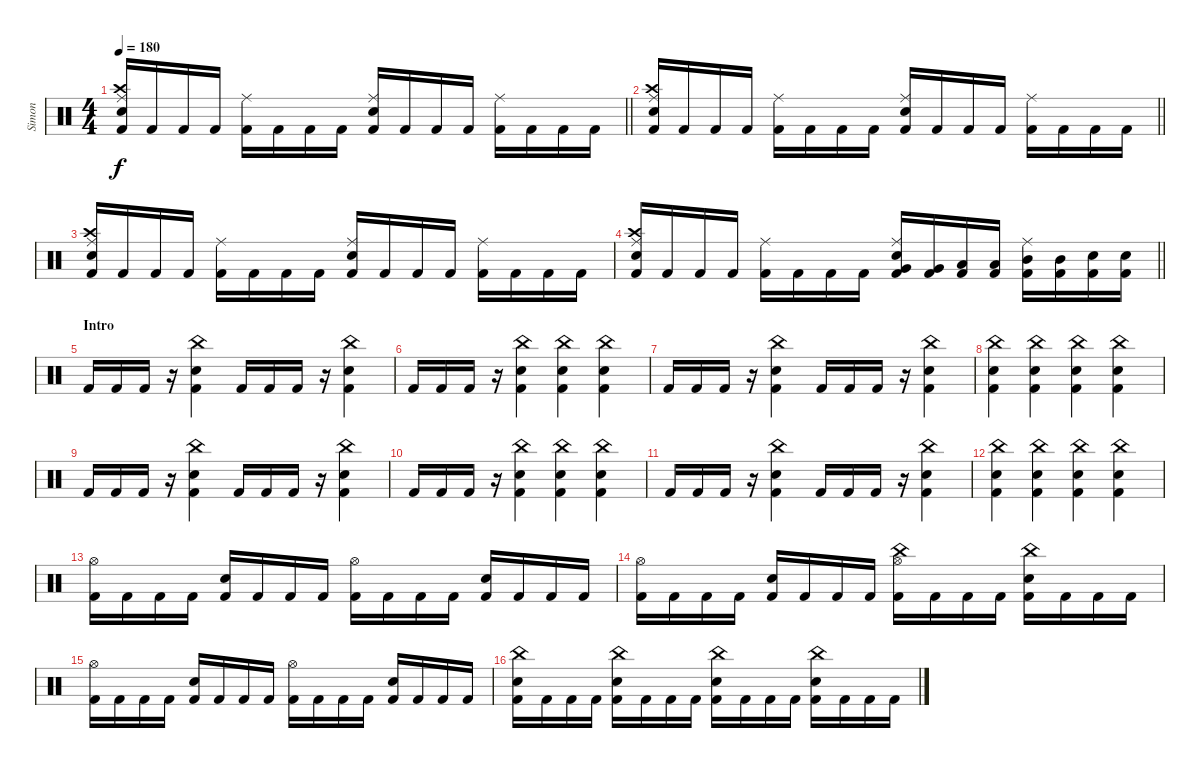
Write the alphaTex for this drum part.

\track ("Simon" "Simon") {instrument percussion}
\staff {score}
\articulation defaults
\ts (4 4)
\tempo 180
\clef neutral
\barLineRight lightlight
\ks c
("Electric Snare (hit)" "Crash high (hit)" "Ride (middle)" "Kick (hit) 2").16{dy f} "Kick (hit) 2".16 "Kick (hit) 2".16 "Kick (hit) 2".16 ("Ride (middle)" "Kick (hit) 2").16 "Kick (hit) 2".16 "Kick (hit) 2".16 "Kick (hit) 2".16 ("Electric Snare (hit)" "Ride (middle)" "Kick (hit) 2").16 "Kick (hit) 2".16 "Kick (hit) 2".16 "Kick (hit) 2".16 ("Ride (middle)" "Kick (hit) 2").16 "Kick (hit) 2".16 "Kick (hit) 2".16 "Kick (hit) 2".16 |
\barLineRight lightlight
("Electric Snare (hit)" "Crash high (hit)" "Ride (middle)" "Kick (hit) 2").16 "Kick (hit) 2".16 "Kick (hit) 2".16 "Kick (hit) 2".16 ("Ride (middle)" "Kick (hit) 2").16 "Kick (hit) 2".16 "Kick (hit) 2".16 "Kick (hit) 2".16 ("Electric Snare (hit)" "Ride (middle)" "Kick (hit) 2").16 "Kick (hit) 2".16 "Kick (hit) 2".16 "Kick (hit) 2".16 ("Ride (middle)" "Kick (hit) 2").16 "Kick (hit) 2".16 "Kick (hit) 2".16 "Kick (hit) 2".16 |
("Electric Snare (hit)" "Crash high (hit)" "Ride (middle)" "Kick (hit) 2").16 "Kick (hit) 2".16 "Kick (hit) 2".16 "Kick (hit) 2".16 ("Ride (middle)" "Kick (hit) 2").16 "Kick (hit) 2".16 "Kick (hit) 2".16 "Kick (hit) 2".16 ("Electric Snare (hit)" "Ride (middle)" "Kick (hit) 2").16 "Kick (hit) 2".16 "Kick (hit) 2".16 "Kick (hit) 2".16 ("Ride (middle)" "Kick (hit) 2").16 "Kick (hit) 2".16 "Kick (hit) 2".16 "Kick (hit) 2".16 |
\barLineRight lightlight
("Electric Snare (hit)" "Crash high (hit)" "Ride (middle)" "Kick (hit) 2").16 "Kick (hit) 2".16 "Kick (hit) 2".16 "Kick (hit) 2".16 ("Ride (middle)" "Kick (hit) 2").16 "Kick (hit) 2".16 "Kick (hit) 2".16 "Kick (hit) 2".16 ("Electric Snare (hit)" "Ride (middle)" "Very Low Tom (hit)" "Kick (hit) 2").16 ("Very Low Tom (hit)" "Kick (hit) 2").16 ("Low Tom (hit)" "Kick (hit) 2").16 ("Low Tom (hit)" "Kick (hit) 2").16 ("Ride (middle)" "Mid Tom (hit)" "Kick (hit) 2").16 ("Mid Tom (hit)" "Kick (hit) 2").16 ("Electric Snare (hit)" "Kick (hit) 2").16 ("Electric Snare (hit)" "Kick (hit) 2").16 |
\section ("" "Intro ")
"Kick (hit) 2".16 "Kick (hit) 2".16 "Kick (hit) 2".16 r.16 ("China (hit)" "Electric Snare (hit)" "Kick (hit) 2").4 "Kick (hit) 2".16 "Kick (hit) 2".16 "Kick (hit) 2".16 r.16 ("China (hit)" "Electric Snare (hit)" "Kick (hit) 2").4 |
"Kick (hit) 2".16 "Kick (hit) 2".16 "Kick (hit) 2".16 r.16 ("China (hit)" "Electric Snare (hit)" "Kick (hit) 2").4 ("China (hit)" "Electric Snare (hit)" "Kick (hit) 2").4 ("China (hit)" "Electric Snare (hit)" "Kick (hit) 2").4 |
"Kick (hit) 2".16 "Kick (hit) 2".16 "Kick (hit) 2".16 r.16 ("China (hit)" "Electric Snare (hit)" "Kick (hit) 2").4 "Kick (hit) 2".16 "Kick (hit) 2".16 "Kick (hit) 2".16 r.16 ("China (hit)" "Electric Snare (hit)" "Kick (hit) 2").4 |
("China (hit)" "Electric Snare (hit)" "Kick (hit) 2").4 ("China (hit)" "Electric Snare (hit)" "Kick (hit) 2").4 ("China (hit)" "Electric Snare (hit)" "Kick (hit) 2").4 ("China (hit)" "Electric Snare (hit)" "Kick (hit) 2").4 |
"Kick (hit) 2".16 "Kick (hit) 2".16 "Kick (hit) 2".16 r.16 ("China (hit)" "Electric Snare (hit)" "Kick (hit) 2").4 "Kick (hit) 2".16 "Kick (hit) 2".16 "Kick (hit) 2".16 r.16 ("China (hit)" "Electric Snare (hit)" "Kick (hit) 2").4 |
"Kick (hit) 2".16 "Kick (hit) 2".16 "Kick (hit) 2".16 r.16 ("China (hit)" "Electric Snare (hit)" "Kick (hit) 2").4 ("China (hit)" "Electric Snare (hit)" "Kick (hit) 2").4 ("China (hit)" "Electric Snare (hit)" "Kick (hit) 2").4 |
"Kick (hit) 2".16 "Kick (hit) 2".16 "Kick (hit) 2".16 r.16 ("China (hit)" "Electric Snare (hit)" "Kick (hit) 2").4 "Kick (hit) 2".16 "Kick (hit) 2".16 "Kick (hit) 2".16 r.16 ("China (hit)" "Electric Snare (hit)" "Kick (hit) 2").4 |
("China (hit)" "Electric Snare (hit)" "Kick (hit) 2").4 ("China (hit)" "Electric Snare (hit)" "Kick (hit) 2").4 ("China (hit)" "Electric Snare (hit)" "Kick (hit) 2").4 ("China (hit)" "Electric Snare (hit)" "Kick (hit) 2").4 |
("Hi-Hat (open)" "Kick (hit) 2").16 "Kick (hit) 2".16 "Kick (hit) 2".16 "Kick (hit) 2".16 ("Electric Snare (hit)" "Kick (hit) 2").16 "Kick (hit) 2".16 "Kick (hit) 2".16 "Kick (hit) 2".16 ("Hi-Hat (open)" "Kick (hit) 2").16 "Kick (hit) 2".16 "Kick (hit) 2".16 "Kick (hit) 2".16 ("Electric Snare (hit)" "Kick (hit) 2").16 "Kick (hit) 2".16 "Kick (hit) 2".16 "Kick (hit) 2".16 |
("Hi-Hat (open)" "Kick (hit) 2").16 "Kick (hit) 2".16 "Kick (hit) 2".16 "Kick (hit) 2".16 ("Electric Snare (hit)" "Kick (hit) 2").16 "Kick (hit) 2".16 "Kick (hit) 2".16 "Kick (hit) 2".16 ("China (hit)" "Hi-Hat (open)" "Kick (hit) 2").16 "Kick (hit) 2".16 "Kick (hit) 2".16 "Kick (hit) 2".16 ("China (hit)" "Electric Snare (hit)" "Kick (hit) 2").16 "Kick (hit) 2".16 "Kick (hit) 2".16 "Kick (hit) 2".16 |
("Hi-Hat (open)" "Kick (hit) 2").16 "Kick (hit) 2".16 "Kick (hit) 2".16 "Kick (hit) 2".16 ("Electric Snare (hit)" "Kick (hit) 2").16 "Kick (hit) 2".16 "Kick (hit) 2".16 "Kick (hit) 2".16 ("Hi-Hat (open)" "Kick (hit) 2").16 "Kick (hit) 2".16 "Kick (hit) 2".16 "Kick (hit) 2".16 ("Electric Snare (hit)" "Kick (hit) 2").16 "Kick (hit) 2".16 "Kick (hit) 2".16 "Kick (hit) 2".16 |
("China (hit)" "Electric Snare (hit)" "Kick (hit) 2").16 "Kick (hit) 2".16 "Kick (hit) 2".16 "Kick (hit) 2".16 ("China (hit)" "Electric Snare (hit)" "Kick (hit) 2").16 "Kick (hit) 2".16 "Kick (hit) 2".16 "Kick (hit) 2".16 ("China (hit)" "Electric Snare (hit)" "Kick (hit) 2").16 "Kick (hit) 2".16 "Kick (hit) 2".16 "Kick (hit) 2".16 ("China (hit)" "Electric Snare (hit)" "Kick (hit) 2").16 "Kick (hit) 2".16 "Kick (hit) 2".16 "Kick (hit) 2".16
